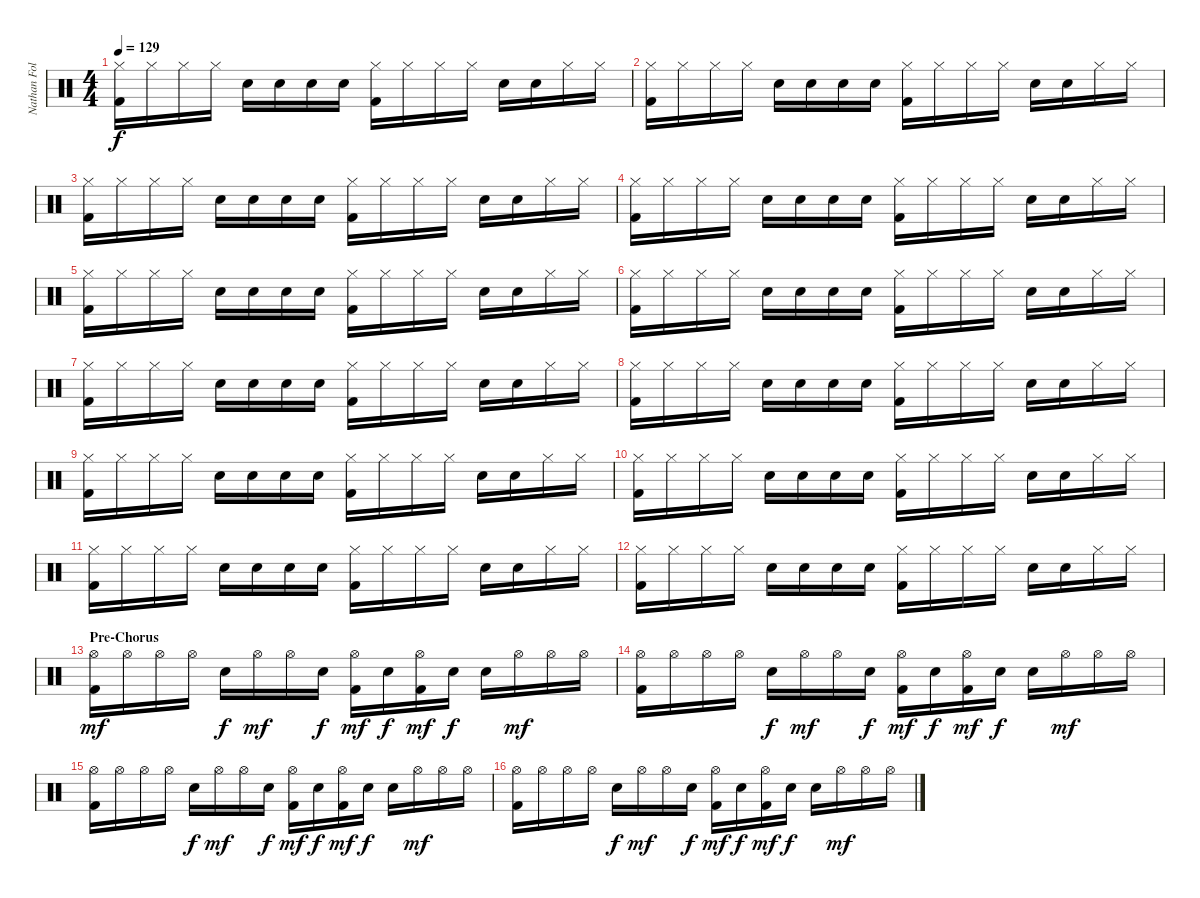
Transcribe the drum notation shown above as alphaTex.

\track ("Nathan Followill" "Nathan Fol") {instrument percussion}
\staff {score}
\articulation defaults
\ts (4 4)
\tempo 129
\clef neutral
\ks c
("Hi-Hat (closed)" "Kick (hit) 2").16{dy f} "Hi-Hat (closed)".16 "Hi-Hat (closed)".16 "Hi-Hat (closed)".16 "Electric Snare (hit)".16 "Electric Snare (hit)".16 "Electric Snare (hit)".16 "Electric Snare (hit)".16 ("Hi-Hat (closed)" "Kick (hit) 2").16 "Hi-Hat (closed)".16 "Hi-Hat (closed)".16 "Hi-Hat (closed)".16 "Electric Snare (hit)".16 "Electric Snare (hit)".16 "Hi-Hat (closed)".16 "Hi-Hat (closed)".16 |
("Hi-Hat (closed)" "Kick (hit) 2").16 "Hi-Hat (closed)".16 "Hi-Hat (closed)".16 "Hi-Hat (closed)".16 "Electric Snare (hit)".16 "Electric Snare (hit)".16 "Electric Snare (hit)".16 "Electric Snare (hit)".16 ("Hi-Hat (closed)" "Kick (hit) 2").16 "Hi-Hat (closed)".16 "Hi-Hat (closed)".16 "Hi-Hat (closed)".16 "Electric Snare (hit)".16 "Electric Snare (hit)".16 "Hi-Hat (closed)".16 "Hi-Hat (closed)".16 |
("Hi-Hat (closed)" "Kick (hit) 2").16 "Hi-Hat (closed)".16 "Hi-Hat (closed)".16 "Hi-Hat (closed)".16 "Electric Snare (hit)".16 "Electric Snare (hit)".16 "Electric Snare (hit)".16 "Electric Snare (hit)".16 ("Hi-Hat (closed)" "Kick (hit) 2").16 "Hi-Hat (closed)".16 "Hi-Hat (closed)".16 "Hi-Hat (closed)".16 "Electric Snare (hit)".16 "Electric Snare (hit)".16 "Hi-Hat (closed)".16 "Hi-Hat (closed)".16 |
("Hi-Hat (closed)" "Kick (hit) 2").16 "Hi-Hat (closed)".16 "Hi-Hat (closed)".16 "Hi-Hat (closed)".16 "Electric Snare (hit)".16 "Electric Snare (hit)".16 "Electric Snare (hit)".16 "Electric Snare (hit)".16 ("Hi-Hat (closed)" "Kick (hit) 2").16 "Hi-Hat (closed)".16 "Hi-Hat (closed)".16 "Hi-Hat (closed)".16 "Electric Snare (hit)".16 "Electric Snare (hit)".16 "Hi-Hat (closed)".16 "Hi-Hat (closed)".16 |
("Hi-Hat (closed)" "Kick (hit) 2").16 "Hi-Hat (closed)".16 "Hi-Hat (closed)".16 "Hi-Hat (closed)".16 "Electric Snare (hit)".16 "Electric Snare (hit)".16 "Electric Snare (hit)".16 "Electric Snare (hit)".16 ("Hi-Hat (closed)" "Kick (hit) 2").16 "Hi-Hat (closed)".16 "Hi-Hat (closed)".16 "Hi-Hat (closed)".16 "Electric Snare (hit)".16 "Electric Snare (hit)".16 "Hi-Hat (closed)".16 "Hi-Hat (closed)".16 |
("Hi-Hat (closed)" "Kick (hit) 2").16 "Hi-Hat (closed)".16 "Hi-Hat (closed)".16 "Hi-Hat (closed)".16 "Electric Snare (hit)".16 "Electric Snare (hit)".16 "Electric Snare (hit)".16 "Electric Snare (hit)".16 ("Hi-Hat (closed)" "Kick (hit) 2").16 "Hi-Hat (closed)".16 "Hi-Hat (closed)".16 "Hi-Hat (closed)".16 "Electric Snare (hit)".16 "Electric Snare (hit)".16 "Hi-Hat (closed)".16 "Hi-Hat (closed)".16 |
("Hi-Hat (closed)" "Kick (hit) 2").16 "Hi-Hat (closed)".16 "Hi-Hat (closed)".16 "Hi-Hat (closed)".16 "Electric Snare (hit)".16 "Electric Snare (hit)".16 "Electric Snare (hit)".16 "Electric Snare (hit)".16 ("Hi-Hat (closed)" "Kick (hit) 2").16 "Hi-Hat (closed)".16 "Hi-Hat (closed)".16 "Hi-Hat (closed)".16 "Electric Snare (hit)".16 "Electric Snare (hit)".16 "Hi-Hat (closed)".16 "Hi-Hat (closed)".16 |
("Hi-Hat (closed)" "Kick (hit) 2").16 "Hi-Hat (closed)".16 "Hi-Hat (closed)".16 "Hi-Hat (closed)".16 "Electric Snare (hit)".16 "Electric Snare (hit)".16 "Electric Snare (hit)".16 "Electric Snare (hit)".16 ("Hi-Hat (closed)" "Kick (hit) 2").16 "Hi-Hat (closed)".16 "Hi-Hat (closed)".16 "Hi-Hat (closed)".16 "Electric Snare (hit)".16 "Electric Snare (hit)".16 "Hi-Hat (closed)".16 "Hi-Hat (closed)".16 |
("Hi-Hat (closed)" "Kick (hit) 2").16 "Hi-Hat (closed)".16 "Hi-Hat (closed)".16 "Hi-Hat (closed)".16 "Electric Snare (hit)".16 "Electric Snare (hit)".16 "Electric Snare (hit)".16 "Electric Snare (hit)".16 ("Hi-Hat (closed)" "Kick (hit) 2").16 "Hi-Hat (closed)".16 "Hi-Hat (closed)".16 "Hi-Hat (closed)".16 "Electric Snare (hit)".16 "Electric Snare (hit)".16 "Hi-Hat (closed)".16 "Hi-Hat (closed)".16 |
("Hi-Hat (closed)" "Kick (hit) 2").16 "Hi-Hat (closed)".16 "Hi-Hat (closed)".16 "Hi-Hat (closed)".16 "Electric Snare (hit)".16 "Electric Snare (hit)".16 "Electric Snare (hit)".16 "Electric Snare (hit)".16 ("Hi-Hat (closed)" "Kick (hit) 2").16 "Hi-Hat (closed)".16 "Hi-Hat (closed)".16 "Hi-Hat (closed)".16 "Electric Snare (hit)".16 "Electric Snare (hit)".16 "Hi-Hat (closed)".16 "Hi-Hat (closed)".16 |
("Hi-Hat (closed)" "Kick (hit) 2").16 "Hi-Hat (closed)".16 "Hi-Hat (closed)".16 "Hi-Hat (closed)".16 "Electric Snare (hit)".16 "Electric Snare (hit)".16 "Electric Snare (hit)".16 "Electric Snare (hit)".16 ("Hi-Hat (closed)" "Kick (hit) 2").16 "Hi-Hat (closed)".16 "Hi-Hat (closed)".16 "Hi-Hat (closed)".16 "Electric Snare (hit)".16 "Electric Snare (hit)".16 "Hi-Hat (closed)".16 "Hi-Hat (closed)".16 |
("Hi-Hat (closed)" "Kick (hit) 2").16 "Hi-Hat (closed)".16 "Hi-Hat (closed)".16 "Hi-Hat (closed)".16 "Electric Snare (hit)".16 "Electric Snare (hit)".16 "Electric Snare (hit)".16 "Electric Snare (hit)".16 ("Hi-Hat (closed)" "Kick (hit) 2").16 "Hi-Hat (closed)".16 "Hi-Hat (closed)".16 "Hi-Hat (closed)".16 "Electric Snare (hit)".16 "Electric Snare (hit)".16 "Hi-Hat (closed)".16 "Hi-Hat (closed)".16 |
\section ("" "Pre-Chorus")
("Hi-Hat (open)" "Kick (hit) 2").16{dy mf} "Hi-Hat (open)".16 "Hi-Hat (open)".16 "Hi-Hat (open)".16 "Electric Snare (hit)".16{dy f} "Hi-Hat (open)".16{dy mf} "Hi-Hat (open)".16 "Electric Snare (hit)".16{dy f} ("Hi-Hat (open)" "Kick (hit) 2").16{dy mf} "Electric Snare (hit)".16{dy f} ("Hi-Hat (open)" "Kick (hit) 2").16{dy mf} "Electric Snare (hit)".16{dy f} "Electric Snare (hit)".16 "Hi-Hat (open)".16{dy mf} "Hi-Hat (open)".16 "Hi-Hat (open)".16 |
("Hi-Hat (open)" "Kick (hit) 2").16 "Hi-Hat (open)".16 "Hi-Hat (open)".16 "Hi-Hat (open)".16 "Electric Snare (hit)".16{dy f} "Hi-Hat (open)".16{dy mf} "Hi-Hat (open)".16 "Electric Snare (hit)".16{dy f} ("Hi-Hat (open)" "Kick (hit) 2").16{dy mf} "Electric Snare (hit)".16{dy f} ("Hi-Hat (open)" "Kick (hit) 2").16{dy mf} "Electric Snare (hit)".16{dy f} "Electric Snare (hit)".16 "Hi-Hat (open)".16{dy mf} "Hi-Hat (open)".16 "Hi-Hat (open)".16 |
("Hi-Hat (open)" "Kick (hit) 2").16 "Hi-Hat (open)".16 "Hi-Hat (open)".16 "Hi-Hat (open)".16 "Electric Snare (hit)".16{dy f} "Hi-Hat (open)".16{dy mf} "Hi-Hat (open)".16 "Electric Snare (hit)".16{dy f} ("Hi-Hat (open)" "Kick (hit) 2").16{dy mf} "Electric Snare (hit)".16{dy f} ("Hi-Hat (open)" "Kick (hit) 2").16{dy mf} "Electric Snare (hit)".16{dy f} "Electric Snare (hit)".16 "Hi-Hat (open)".16{dy mf} "Hi-Hat (open)".16 "Hi-Hat (open)".16 |
("Hi-Hat (open)" "Kick (hit) 2").16 "Hi-Hat (open)".16 "Hi-Hat (open)".16 "Hi-Hat (open)".16 "Electric Snare (hit)".16{dy f} "Hi-Hat (open)".16{dy mf} "Hi-Hat (open)".16 "Electric Snare (hit)".16{dy f} ("Hi-Hat (open)" "Kick (hit) 2").16{dy mf} "Electric Snare (hit)".16{dy f} ("Hi-Hat (open)" "Kick (hit) 2").16{dy mf} "Electric Snare (hit)".16{dy f} "Electric Snare (hit)".16 "Hi-Hat (open)".16{dy mf} "Hi-Hat (open)".16 "Hi-Hat (open)".16
